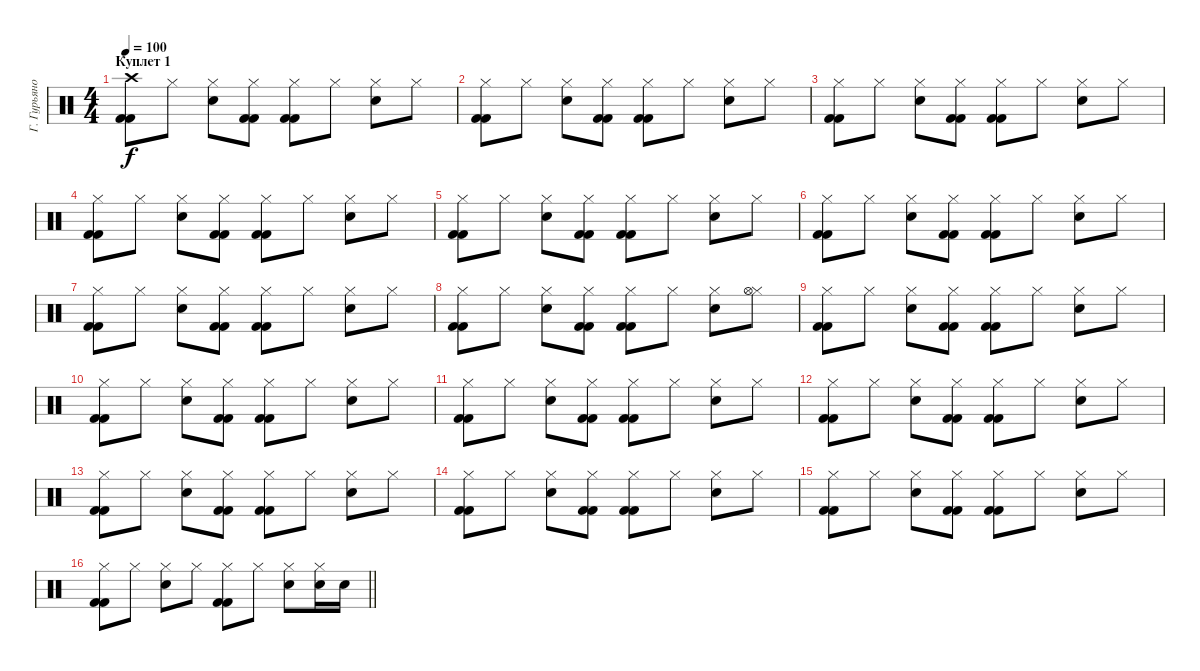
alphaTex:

\track ("Г. Гурьянов" "Г. Гурьяно") {instrument percussion}
\staff {score}
\articulation defaults
\ts (4 4)
\section ("" "Куплет 1")
\tempo 100
\clef neutral
\ks c
("Crash high (hit)" "Kick (hit) 2" "Kick (hit) 2").8{dy f} "Hi-Hat (closed)".8 ("Hi-Hat (closed)" "Hand Clap (hit)").8 ("Hi-Hat (closed)" "Kick (hit) 2" "Kick (hit) 2").8 ("Hi-Hat (closed)" "Kick (hit) 2" "Kick (hit) 2").8 "Hi-Hat (closed)".8 ("Hi-Hat (closed)" "Hand Clap (hit)").8 "Hi-Hat (closed)".8 |
("Hi-Hat (closed)" "Kick (hit) 2" "Kick (hit) 2").8 "Hi-Hat (closed)".8 ("Hi-Hat (closed)" "Hand Clap (hit)").8 ("Hi-Hat (closed)" "Kick (hit) 2" "Kick (hit) 2").8 ("Hi-Hat (closed)" "Kick (hit) 2" "Kick (hit) 2").8 "Hi-Hat (closed)".8 ("Hi-Hat (closed)" "Hand Clap (hit)").8 "Hi-Hat (closed)".8 |
("Hi-Hat (closed)" "Kick (hit) 2" "Kick (hit) 2").8 "Hi-Hat (closed)".8 ("Hi-Hat (closed)" "Hand Clap (hit)").8 ("Hi-Hat (closed)" "Kick (hit) 2" "Kick (hit) 2").8 ("Hi-Hat (closed)" "Kick (hit) 2" "Kick (hit) 2").8 "Hi-Hat (closed)".8 ("Hi-Hat (closed)" "Hand Clap (hit)").8 "Hi-Hat (closed)".8 |
("Hi-Hat (closed)" "Kick (hit) 2" "Kick (hit) 2").8 "Hi-Hat (closed)".8 ("Hi-Hat (closed)" "Hand Clap (hit)").8 ("Hi-Hat (closed)" "Kick (hit) 2" "Kick (hit) 2").8 ("Hi-Hat (closed)" "Kick (hit) 2" "Kick (hit) 2").8 "Hi-Hat (closed)".8 ("Hi-Hat (closed)" "Hand Clap (hit)").8 "Hi-Hat (closed)".8 |
("Hi-Hat (closed)" "Kick (hit) 2" "Kick (hit) 2").8 "Hi-Hat (closed)".8 ("Hi-Hat (closed)" "Hand Clap (hit)").8 ("Hi-Hat (closed)" "Kick (hit) 2" "Kick (hit) 2").8 ("Hi-Hat (closed)" "Kick (hit) 2" "Kick (hit) 2").8 "Hi-Hat (closed)".8 ("Hi-Hat (closed)" "Hand Clap (hit)").8 "Hi-Hat (closed)".8 |
("Hi-Hat (closed)" "Kick (hit) 2" "Kick (hit) 2").8 "Hi-Hat (closed)".8 ("Hi-Hat (closed)" "Hand Clap (hit)").8 ("Hi-Hat (closed)" "Kick (hit) 2" "Kick (hit) 2").8 ("Hi-Hat (closed)" "Kick (hit) 2" "Kick (hit) 2").8 "Hi-Hat (closed)".8 ("Hi-Hat (closed)" "Hand Clap (hit)").8 "Hi-Hat (closed)".8 |
("Hi-Hat (closed)" "Kick (hit) 2" "Kick (hit) 2").8 "Hi-Hat (closed)".8 ("Hi-Hat (closed)" "Hand Clap (hit)").8 ("Hi-Hat (closed)" "Kick (hit) 2" "Kick (hit) 2").8 ("Hi-Hat (closed)" "Kick (hit) 2" "Kick (hit) 2").8 "Hi-Hat (closed)".8 ("Hi-Hat (closed)" "Hand Clap (hit)").8 "Hi-Hat (closed)".8 |
("Hi-Hat (closed)" "Kick (hit) 2" "Kick (hit) 2").8 "Hi-Hat (closed)".8 ("Hi-Hat (closed)" "Hand Clap (hit)").8 ("Hi-Hat (closed)" "Kick (hit) 2" "Kick (hit) 2").8 ("Hi-Hat (closed)" "Kick (hit) 2" "Kick (hit) 2").8 "Hi-Hat (closed)".8 ("Hi-Hat (closed)" "Hand Clap (hit)").8 ("Hi-Hat (closed)" "Hi-Hat (open)").8 |
("Hi-Hat (closed)" "Kick (hit) 2" "Kick (hit) 2").8 "Hi-Hat (closed)".8 ("Hi-Hat (closed)" "Hand Clap (hit)").8 ("Hi-Hat (closed)" "Kick (hit) 2" "Kick (hit) 2").8 ("Hi-Hat (closed)" "Kick (hit) 2" "Kick (hit) 2").8 "Hi-Hat (closed)".8 ("Hi-Hat (closed)" "Hand Clap (hit)").8 "Hi-Hat (closed)".8 |
("Hi-Hat (closed)" "Kick (hit) 2" "Kick (hit) 2").8 "Hi-Hat (closed)".8 ("Hi-Hat (closed)" "Hand Clap (hit)").8 ("Hi-Hat (closed)" "Kick (hit) 2" "Kick (hit) 2").8 ("Hi-Hat (closed)" "Kick (hit) 2" "Kick (hit) 2").8 "Hi-Hat (closed)".8 ("Hi-Hat (closed)" "Hand Clap (hit)").8 "Hi-Hat (closed)".8 |
("Hi-Hat (closed)" "Kick (hit) 2" "Kick (hit) 2").8 "Hi-Hat (closed)".8 ("Hi-Hat (closed)" "Hand Clap (hit)").8 ("Hi-Hat (closed)" "Kick (hit) 2" "Kick (hit) 2").8 ("Hi-Hat (closed)" "Kick (hit) 2" "Kick (hit) 2").8 "Hi-Hat (closed)".8 ("Hi-Hat (closed)" "Hand Clap (hit)").8 "Hi-Hat (closed)".8 |
("Hi-Hat (closed)" "Kick (hit) 2" "Kick (hit) 2").8 "Hi-Hat (closed)".8 ("Hi-Hat (closed)" "Hand Clap (hit)").8 ("Hi-Hat (closed)" "Kick (hit) 2" "Kick (hit) 2").8 ("Hi-Hat (closed)" "Kick (hit) 2" "Kick (hit) 2").8 "Hi-Hat (closed)".8 ("Hi-Hat (closed)" "Hand Clap (hit)").8 "Hi-Hat (closed)".8 |
("Hi-Hat (closed)" "Kick (hit) 2" "Kick (hit) 2").8 "Hi-Hat (closed)".8 ("Hi-Hat (closed)" "Hand Clap (hit)").8 ("Hi-Hat (closed)" "Kick (hit) 2" "Kick (hit) 2").8 ("Hi-Hat (closed)" "Kick (hit) 2" "Kick (hit) 2").8 "Hi-Hat (closed)".8 ("Hi-Hat (closed)" "Hand Clap (hit)").8 "Hi-Hat (closed)".8 |
("Hi-Hat (closed)" "Kick (hit) 2" "Kick (hit) 2").8 "Hi-Hat (closed)".8 ("Hi-Hat (closed)" "Hand Clap (hit)").8 ("Hi-Hat (closed)" "Kick (hit) 2" "Kick (hit) 2").8 ("Hi-Hat (closed)" "Kick (hit) 2" "Kick (hit) 2").8 "Hi-Hat (closed)".8 ("Hi-Hat (closed)" "Hand Clap (hit)").8 "Hi-Hat (closed)".8 |
("Hi-Hat (closed)" "Kick (hit) 2" "Kick (hit) 2").8 "Hi-Hat (closed)".8 ("Hi-Hat (closed)" "Hand Clap (hit)").8 ("Hi-Hat (closed)" "Kick (hit) 2" "Kick (hit) 2").8 ("Hi-Hat (closed)" "Kick (hit) 2" "Kick (hit) 2").8 "Hi-Hat (closed)".8 ("Hi-Hat (closed)" "Hand Clap (hit)").8 "Hi-Hat (closed)".8 |
\barLineRight lightlight
("Hi-Hat (closed)" "Kick (hit) 2" "Kick (hit) 2").8 "Hi-Hat (closed)".8 ("Hi-Hat (closed)" "Hand Clap (hit)").8 "Hi-Hat (closed)".8 ("Hi-Hat (closed)" "Kick (hit) 2" "Kick (hit) 2").8 "Hi-Hat (closed)".8 ("Hi-Hat (closed)" "Snare (hit) 2").8 ("Hi-Hat (closed)" "Snare (hit) 2").16 "Snare (hit) 2".16
